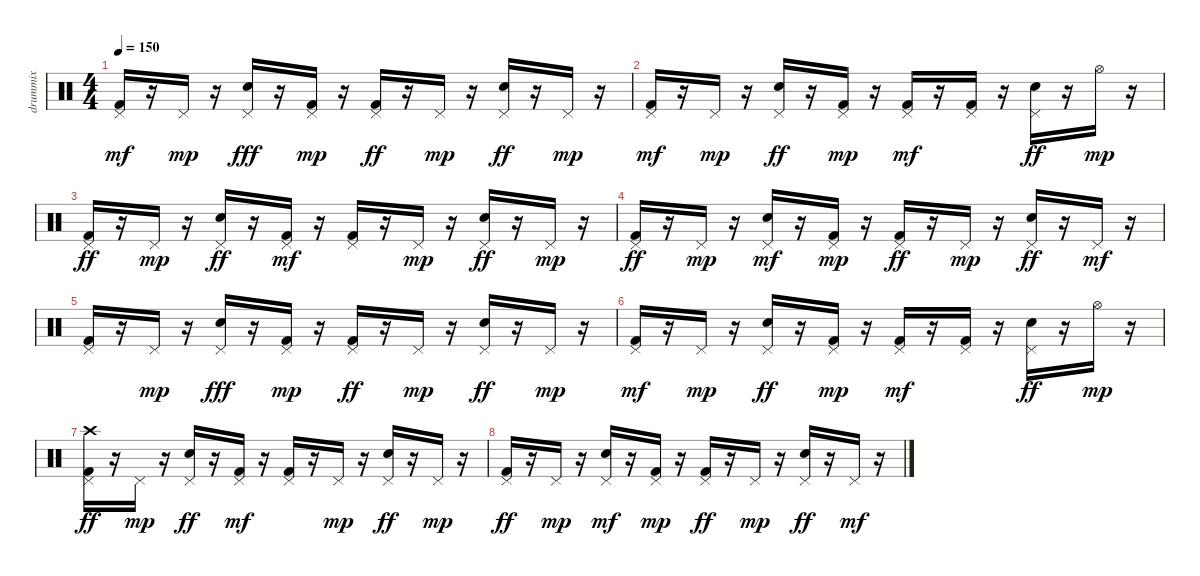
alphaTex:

\track ("drummix" "drummix") {instrument percussion}
\staff {score}
\articulation defaults
\ts (4 4)
\tempo 150
\clef neutral
\ks c
("Kick (hit) 2" "Pedal Hi-Hat (hit)").16{dy mf} r.16 "Pedal Hi-Hat (hit)".16{dy mp} r.16 ("Snare (hit) 2" "Pedal Hi-Hat (hit)").16{dy fff} r.16 ("Kick (hit) 2" "Pedal Hi-Hat (hit)").16{dy mp} r.16 ("Kick (hit) 2" "Pedal Hi-Hat (hit)").16{dy ff} r.16 "Pedal Hi-Hat (hit)".16{dy mp} r.16 ("Snare (hit) 2" "Pedal Hi-Hat (hit)").16{dy ff} r.16 "Pedal Hi-Hat (hit)".16{dy mp} r.16 |
("Kick (hit) 2" "Pedal Hi-Hat (hit)").16{dy mf} r.16 "Pedal Hi-Hat (hit)".16{dy mp} r.16 ("Snare (hit) 2" "Pedal Hi-Hat (hit)").16{dy ff} r.16 ("Kick (hit) 2" "Pedal Hi-Hat (hit)").16{dy mp} r.16 ("Kick (hit) 2" "Pedal Hi-Hat (hit)").16{dy mf} r.16 ("Kick (hit) 2" "Pedal Hi-Hat (hit)").16 r.16 ("Snare (hit) 2" "Pedal Hi-Hat (hit)").16{dy ff} r.16 "Hi-Hat (open)".16{dy mp} r.16 |
("Kick (hit) 2" "Pedal Hi-Hat (hit)").16{dy ff} r.16 "Pedal Hi-Hat (hit)".16{dy mp} r.16 ("Snare (hit) 2" "Pedal Hi-Hat (hit)").16{dy ff} r.16 ("Kick (hit) 2" "Pedal Hi-Hat (hit)").16{dy mf} r.16 ("Kick (hit) 2" "Pedal Hi-Hat (hit)").16 r.16 "Pedal Hi-Hat (hit)".16{dy mp} r.16 ("Snare (hit) 2" "Pedal Hi-Hat (hit)").16{dy ff} r.16 "Pedal Hi-Hat (hit)".16{dy mp} r.16 |
("Kick (hit) 2" "Pedal Hi-Hat (hit)").16{dy ff} r.16 "Pedal Hi-Hat (hit)".16{dy mp} r.16 ("Snare (hit) 2" "Pedal Hi-Hat (hit)").16{dy mf} r.16 ("Kick (hit) 2" "Pedal Hi-Hat (hit)").16{dy mp} r.16 ("Kick (hit) 2" "Pedal Hi-Hat (hit)").16{dy ff} r.16 "Pedal Hi-Hat (hit)".16{dy mp} r.16 ("Snare (hit) 2" "Pedal Hi-Hat (hit)").16{dy ff} r.16 "Pedal Hi-Hat (hit)".16{dy mf} r.16 |
("Kick (hit) 2" "Pedal Hi-Hat (hit)").16 r.16 "Pedal Hi-Hat (hit)".16{dy mp} r.16 ("Snare (hit) 2" "Pedal Hi-Hat (hit)").16{dy fff} r.16 ("Kick (hit) 2" "Pedal Hi-Hat (hit)").16{dy mp} r.16 ("Kick (hit) 2" "Pedal Hi-Hat (hit)").16{dy ff} r.16 "Pedal Hi-Hat (hit)".16{dy mp} r.16 ("Snare (hit) 2" "Pedal Hi-Hat (hit)").16{dy ff} r.16 "Pedal Hi-Hat (hit)".16{dy mp} r.16 |
("Kick (hit) 2" "Pedal Hi-Hat (hit)").16{dy mf} r.16 "Pedal Hi-Hat (hit)".16{dy mp} r.16 ("Snare (hit) 2" "Pedal Hi-Hat (hit)").16{dy ff} r.16 ("Kick (hit) 2" "Pedal Hi-Hat (hit)").16{dy mp} r.16 ("Kick (hit) 2" "Pedal Hi-Hat (hit)").16{dy mf} r.16 ("Kick (hit) 2" "Pedal Hi-Hat (hit)").16 r.16 ("Snare (hit) 2" "Pedal Hi-Hat (hit)").16{dy ff} r.16 "Hi-Hat (open)".16{dy mp} r.16 |
("Kick (hit) 2" "Pedal Hi-Hat (hit)" "Crash high (hit)").16{dy ff} r.16 "Pedal Hi-Hat (hit)".16{dy mp} r.16 ("Snare (hit) 2" "Pedal Hi-Hat (hit)").16{dy ff} r.16 ("Kick (hit) 2" "Pedal Hi-Hat (hit)").16{dy mf} r.16 ("Kick (hit) 2" "Pedal Hi-Hat (hit)").16 r.16 "Pedal Hi-Hat (hit)".16{dy mp} r.16 ("Snare (hit) 2" "Pedal Hi-Hat (hit)").16{dy ff} r.16 "Pedal Hi-Hat (hit)".16{dy mp} r.16 |
("Kick (hit) 2" "Pedal Hi-Hat (hit)").16{dy ff} r.16 "Pedal Hi-Hat (hit)".16{dy mp} r.16 ("Snare (hit) 2" "Pedal Hi-Hat (hit)").16{dy mf} r.16 ("Kick (hit) 2" "Pedal Hi-Hat (hit)").16{dy mp} r.16 ("Kick (hit) 2" "Pedal Hi-Hat (hit)").16{dy ff} r.16 "Pedal Hi-Hat (hit)".16{dy mp} r.16 ("Snare (hit) 2" "Pedal Hi-Hat (hit)").16{dy ff} r.16 "Pedal Hi-Hat (hit)".16{dy mf} r.16
